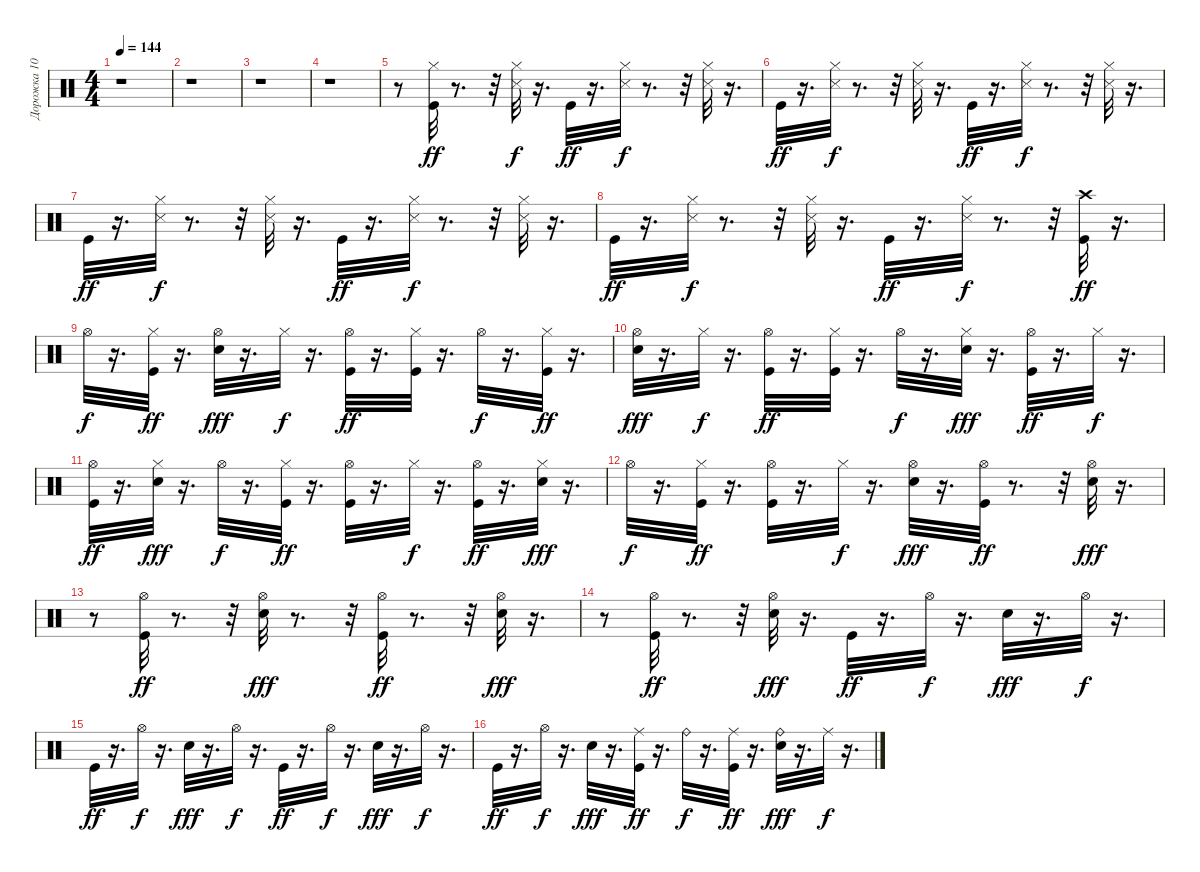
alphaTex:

\track ("Дорожка 10" "Дорожка 10") {instrument percussion}
\staff {score}
\articulation defaults
\ts (4 4)
\tempo 144
\clef neutral
\ks c
r.1{dy ff} |
r.1 |
r.1 |
r.1 |
r.8 ("Hi-Hat (closed)" "Kick (hit)").32 r.8{d} r.32 ("Snare (side stick) 3" "Hi-Hat (closed)").32{dy f} r.16{d} "Kick (hit)".32{dy ff} r.16{d} ("Hi-Hat (closed)" "Snare (side stick) 3").32{dy f} r.8{d} r.32 ("Hi-Hat (closed)" "Snare (side stick) 3").32 r.16{d} |
"Kick (hit)".32{dy ff} r.16{d} ("Snare (side stick) 3" "Hi-Hat (closed)").32{dy f} r.8{d} r.32 ("Hi-Hat (closed)" "Snare (side stick) 3").32 r.16{d} "Kick (hit)".32{dy ff} r.16{d} ("Snare (side stick) 3" "Hi-Hat (closed)").32{dy f} r.8{d} r.32 ("Hi-Hat (closed)" "Snare (side stick) 3").32 r.16{d} |
"Kick (hit)".32{dy ff} r.16{d} ("Snare (side stick) 3" "Hi-Hat (closed)").32{dy f} r.8{d} r.32 ("Snare (side stick) 3" "Hi-Hat (closed)").32 r.16{d} "Kick (hit)".32{dy ff} r.16{d} ("Snare (side stick) 3" "Hi-Hat (closed)").32{dy f} r.8{d} r.32 ("Hi-Hat (closed)" "Snare (side stick) 3").32 r.16{d} |
"Kick (hit)".32{dy ff} r.16{d} ("Hi-Hat (closed)" "Snare (side stick) 3").32{dy f} r.8{d} r.32 ("Snare (side stick) 3" "Hi-Hat (closed)").32 r.16{d} "Kick (hit)".32{dy ff} r.16{d} ("Hi-Hat (closed)" "Snare (side stick) 3").32{dy f} r.8{d} r.32 ("Kick (hit)" "Crash high (hit)").32{dy ff} r.16{d} |
"Hi-Hat (open)".32{dy f} r.16{d} ("Hi-Hat (closed)" "Kick (hit)").32{dy ff} r.16{d} ("Electric Snare (hit)" "Hi-Hat (open)").32{dy fff} r.16{d} "Hi-Hat (closed)".32{dy f} r.16{d} ("Kick (hit)" "Hi-Hat (open)").32{dy ff} r.16{d} ("Kick (hit)" "Hi-Hat (closed)").32 r.16{d} "Hi-Hat (open)".32{dy f} r.16{d} ("Hi-Hat (closed)" "Kick (hit)").32{dy ff} r.16{d} |
("Electric Snare (hit)" "Hi-Hat (open)").32{dy fff} r.16{d} "Hi-Hat (closed)".32{dy f} r.16{d} ("Hi-Hat (open)" "Kick (hit)").32{dy ff} r.16{d} ("Kick (hit)" "Hi-Hat (closed)").32 r.16{d} "Hi-Hat (open)".32{dy f} r.16{d} ("Hi-Hat (closed)" "Electric Snare (hit)").32{dy fff} r.16{d} ("Kick (hit)" "Hi-Hat (open)").32{dy ff} r.16{d} "Hi-Hat (closed)".32{dy f} r.16{d} |
("Kick (hit)" "Hi-Hat (open)").32{dy ff} r.16{d} ("Hi-Hat (closed)" "Electric Snare (hit)").32{dy fff} r.16{d} "Hi-Hat (open)".32{dy f} r.16{d} ("Hi-Hat (closed)" "Kick (hit)").32{dy ff} r.16{d} ("Kick (hit)" "Hi-Hat (open)").32 r.16{d} "Hi-Hat (closed)".32{dy f} r.16{d} ("Kick (hit)" "Hi-Hat (open)").32{dy ff} r.16{d} ("Hi-Hat (closed)" "Electric Snare (hit)").32{dy fff} r.16{d} |
"Hi-Hat (open)".32{dy f} r.16{d} ("Kick (hit)" "Hi-Hat (closed)").32{dy ff} r.16{d} ("Kick (hit)" "Hi-Hat (open)").32 r.16{d} "Hi-Hat (closed)".32{dy f} r.16{d} ("Electric Snare (hit)" "Hi-Hat (open)").32{dy fff} r.16{d} ("Hi-Hat (open)" "Kick (hit)").32{dy ff} r.8{d} r.32 ("Electric Snare (hit)" "Hi-Hat (open)").32{dy fff} r.16{d} |
r.8 ("Hi-Hat (open)" "Kick (hit)").32{dy ff} r.8{d} r.32 ("Hi-Hat (open)" "Electric Snare (hit)").32{dy fff} r.8{d} r.32 ("Kick (hit)" "Hi-Hat (open)").32{dy ff} r.8{d} r.32 ("Electric Snare (hit)" "Hi-Hat (open)").32{dy fff} r.16{d} |
r.8 ("Hi-Hat (open)" "Kick (hit)").32{dy ff} r.8{d} r.32 ("Electric Snare (hit)" "Hi-Hat (open)").32{dy fff} r.16{d} "Kick (hit)".32{dy ff} r.16{d} "Hi-Hat (open)".32{dy f} r.16{d} "Electric Snare (hit)".32{dy fff} r.16{d} "Hi-Hat (open)".32{dy f} r.16{d} |
"Kick (hit)".32{dy ff} r.16{d} "Hi-Hat (open)".32{dy f} r.16{d} "Electric Snare (hit)".32{dy fff} r.16{d} "Hi-Hat (open)".32{dy f} r.16{d} "Kick (hit)".32{dy ff} r.16{d} "Hi-Hat (open)".32{dy f} r.16{d} "Electric Snare (hit)".32{dy fff} r.16{d} "Hi-Hat (open)".32{dy f} r.16{d} |
"Kick (hit)".32{dy ff} r.16{d} "Hi-Hat (open)".32{dy f} r.16{d} "Electric Snare (hit)".32{dy fff} r.16{d} ("Ride (middle)" "Kick (hit)").32{dy ff} r.16{d} "Ride (bell)".32{dy f} r.16{d} ("Kick (hit)" "Ride (middle)").32{dy ff} r.16{d} ("Electric Snare (hit)" "Ride (bell)").32{dy fff} r.16{d} "Ride (middle)".32{dy f} r.16{d}
